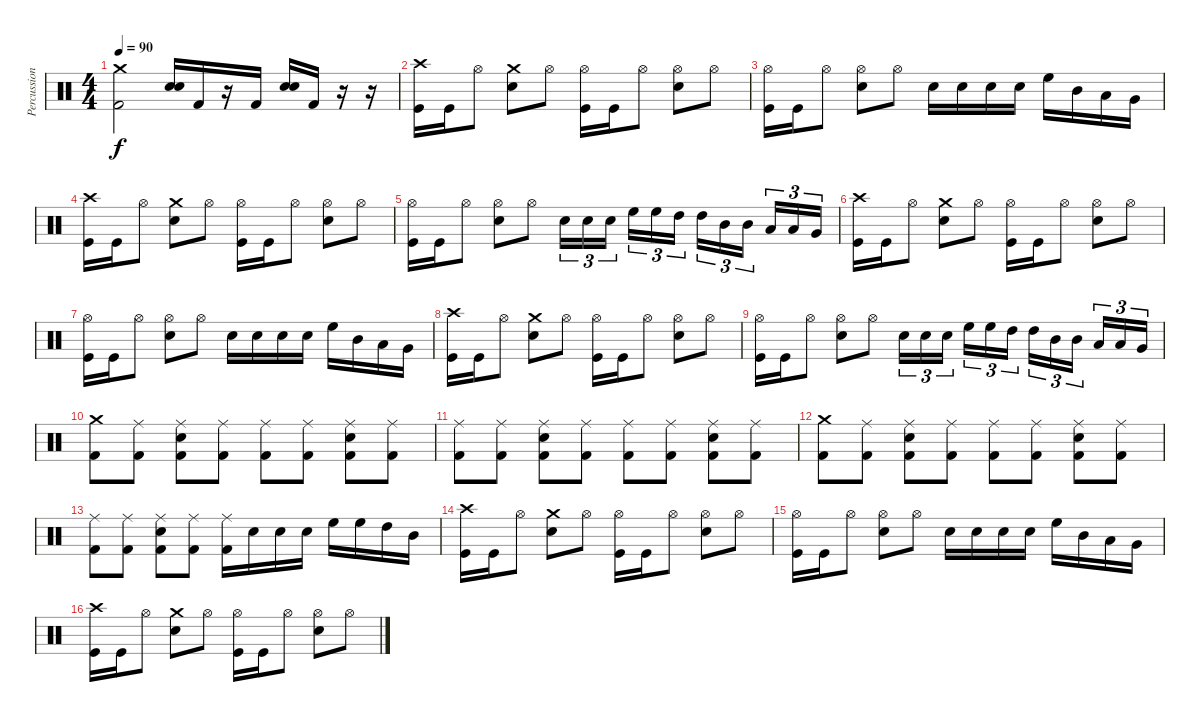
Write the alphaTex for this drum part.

\track ("Percussions" "Percussion") {instrument percussion}
\staff {score}
\articulation defaults
\ts (4 4)
\tempo 90
\clef neutral
\ks c
("Crash medium (hit)" "Kick (hit) 2").2{dy f} ("Snare (hit) 2" "Electric Snare (hit)").16 "Kick (hit) 2".16 r.16 "Kick (hit) 2".16 ("Snare (hit) 2" "Electric Snare (hit)").16 "Kick (hit) 2".16 r.16 r.16 |
("Crash high (hit)" "Kick (hit)").16 "Kick (hit)".16 "Hi-Hat (open)".8 ("Crash medium (hit)" "Electric Snare (hit)").8 "Hi-Hat (open)".8 ("Hi-Hat (open)" "Kick (hit)").16 "Kick (hit)".16 "Hi-Hat (open)".8 ("Hi-Hat (open)" "Electric Snare (hit)").8 "Hi-Hat (open)".8 |
("Hi-Hat (open)" "Kick (hit)").16 "Kick (hit)".16 "Hi-Hat (open)".8 ("Hi-Hat (open)" "Electric Snare (hit)").8 "Hi-Hat (open)".8 "Electric Snare (hit)".16 "Electric Snare (hit)".16 "Electric Snare (hit)".16 "Electric Snare (hit)".16 "High Floor Tom (hit)".16 "Mid Tom (hit)".16 "Low Tom (hit)".16 "Very Low Tom (hit)".16 |
("Crash high (hit)" "Kick (hit)").16 "Kick (hit)".16 "Hi-Hat (open)".8 ("Crash medium (hit)" "Electric Snare (hit)").8 "Hi-Hat (open)".8 ("Hi-Hat (open)" "Kick (hit)").16 "Kick (hit)".16 "Hi-Hat (open)".8 ("Hi-Hat (open)" "Electric Snare (hit)").8 "Hi-Hat (open)".8 |
("Hi-Hat (open)" "Kick (hit)").16 "Kick (hit)".16 "Hi-Hat (open)".8 ("Hi-Hat (open)" "Electric Snare (hit)").8 "Hi-Hat (open)".8 "Electric Snare (hit)".16{tu (3 2)} "Electric Snare (hit)".16{tu (3 2)} "Electric Snare (hit)".16{tu (3 2)} "High Floor Tom (hit)".16{tu (3 2)} "High Floor Tom (hit)".16{tu (3 2)} "High Tom (hit)".16{tu (3 2)} "High Tom (hit)".16{tu (3 2)} "Mid Tom (hit)".16{tu (3 2)} "Mid Tom (hit)".16{tu (3 2)} "Low Tom (hit)".16{tu (3 2)} "Low Floor Tom (hit)".16{tu (3 2)} "Very Low Tom (hit)".16{tu (3 2)} |
("Crash high (hit)" "Kick (hit)").16 "Kick (hit)".16 "Hi-Hat (open)".8 ("Crash medium (hit)" "Electric Snare (hit)").8 "Hi-Hat (open)".8 ("Hi-Hat (open)" "Kick (hit)").16 "Kick (hit)".16 "Hi-Hat (open)".8 ("Hi-Hat (open)" "Electric Snare (hit)").8 "Hi-Hat (open)".8 |
("Hi-Hat (open)" "Kick (hit)").16 "Kick (hit)".16 "Hi-Hat (open)".8 ("Hi-Hat (open)" "Electric Snare (hit)").8 "Hi-Hat (open)".8 "Electric Snare (hit)".16 "Electric Snare (hit)".16 "Electric Snare (hit)".16 "Electric Snare (hit)".16 "High Floor Tom (hit)".16 "Mid Tom (hit)".16 "Low Tom (hit)".16 "Very Low Tom (hit)".16 |
("Crash high (hit)" "Kick (hit)").16 "Kick (hit)".16 "Hi-Hat (open)".8 ("Crash medium (hit)" "Electric Snare (hit)").8 "Hi-Hat (open)".8 ("Hi-Hat (open)" "Kick (hit)").16 "Kick (hit)".16 "Hi-Hat (open)".8 ("Hi-Hat (open)" "Electric Snare (hit)").8 "Hi-Hat (open)".8 |
("Hi-Hat (open)" "Kick (hit)").16 "Kick (hit)".16 "Hi-Hat (open)".8 ("Hi-Hat (open)" "Electric Snare (hit)").8 "Hi-Hat (open)".8 "Electric Snare (hit)".16{tu (3 2)} "Electric Snare (hit)".16{tu (3 2)} "Electric Snare (hit)".16{tu (3 2)} "High Floor Tom (hit)".16{tu (3 2)} "High Floor Tom (hit)".16{tu (3 2)} "High Tom (hit)".16{tu (3 2)} "High Tom (hit)".16{tu (3 2)} "Mid Tom (hit)".16{tu (3 2)} "Mid Tom (hit)".16{tu (3 2)} "Low Tom (hit)".16{tu (3 2)} "Low Floor Tom (hit)".16{tu (3 2)} "Very Low Tom (hit)".16{tu (3 2)} |
("Crash medium (hit)" "Kick (hit) 2").8 ("Ride (middle)" "Kick (hit) 2").8 ("Ride (middle)" "Electric Snare (hit)" "Kick (hit) 2").8 ("Ride (middle)" "Kick (hit) 2").8 ("Ride (middle)" "Kick (hit) 2").8 ("Ride (middle)" "Kick (hit) 2").8 ("Ride (middle)" "Electric Snare (hit)" "Kick (hit) 2").8 ("Ride (middle)" "Kick (hit) 2").8 |
("Ride (middle)" "Kick (hit) 2").8 ("Ride (middle)" "Kick (hit) 2").8 ("Ride (middle)" "Electric Snare (hit)" "Kick (hit) 2").8 ("Ride (middle)" "Kick (hit) 2").8 ("Ride (middle)" "Kick (hit) 2").8 ("Ride (middle)" "Kick (hit) 2").8 ("Ride (middle)" "Electric Snare (hit)" "Kick (hit) 2").8 ("Ride (middle)" "Kick (hit) 2").8 |
("Crash medium (hit)" "Kick (hit) 2").8 ("Ride (middle)" "Kick (hit) 2").8 ("Ride (middle)" "Electric Snare (hit)" "Kick (hit) 2").8 ("Ride (middle)" "Kick (hit) 2").8 ("Ride (middle)" "Kick (hit) 2").8 ("Ride (middle)" "Kick (hit) 2").8 ("Ride (middle)" "Electric Snare (hit)" "Kick (hit) 2").8 ("Ride (middle)" "Kick (hit) 2").8 |
("Ride (middle)" "Kick (hit) 2").8 ("Ride (middle)" "Kick (hit) 2").8 ("Ride (middle)" "Electric Snare (hit)" "Kick (hit) 2").8 ("Ride (middle)" "Kick (hit) 2").8 ("Ride (middle)" "Kick (hit) 2").16 "Electric Snare (hit)".16 "Electric Snare (hit)".16 "Electric Snare (hit)".16 "High Floor Tom (hit)".16 "High Floor Tom (hit)".16 "High Tom (hit)".16 "Mid Tom (hit)".16 |
("Crash high (hit)" "Kick (hit)").16 "Kick (hit)".16 "Hi-Hat (open)".8 ("Crash medium (hit)" "Electric Snare (hit)").8 "Hi-Hat (open)".8 ("Hi-Hat (open)" "Kick (hit)").16 "Kick (hit)".16 "Hi-Hat (open)".8 ("Hi-Hat (open)" "Electric Snare (hit)").8 "Hi-Hat (open)".8 |
("Hi-Hat (open)" "Kick (hit)").16 "Kick (hit)".16 "Hi-Hat (open)".8 ("Hi-Hat (open)" "Electric Snare (hit)").8 "Hi-Hat (open)".8 "Electric Snare (hit)".16 "Electric Snare (hit)".16 "Electric Snare (hit)".16 "Electric Snare (hit)".16 "High Floor Tom (hit)".16 "Mid Tom (hit)".16 "Low Tom (hit)".16 "Very Low Tom (hit)".16 |
("Crash high (hit)" "Kick (hit)").16 "Kick (hit)".16 "Hi-Hat (open)".8 ("Crash medium (hit)" "Electric Snare (hit)").8 "Hi-Hat (open)".8 ("Hi-Hat (open)" "Kick (hit)").16 "Kick (hit)".16 "Hi-Hat (open)".8 ("Hi-Hat (open)" "Electric Snare (hit)").8 "Hi-Hat (open)".8
